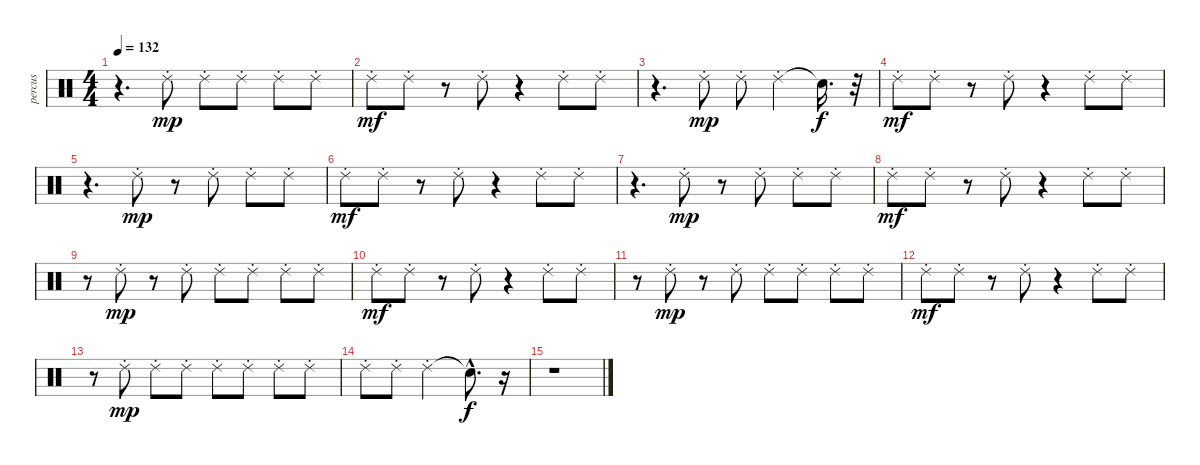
\track ("percus" "percus") {instrument percussion}
\staff {score}
\articulation defaults
\ts (4 4)
\tempo 132
\clef neutral
\ks c
r.4{d dy mf} "Ride (choke) 2".8{dy mp} "Ride (choke) 2".8 "Ride (choke) 2".8 "Ride (choke) 2".8 "Ride (choke) 2".8 |
"Ride (choke) 2".8{dy mf} "Ride (choke) 2".8 r.8 "Ride (choke) 2".8 r.4 "Ride (choke) 2".8 "Ride (choke) 2".8 |
r.4{d} "Ride (choke) 2".8{dy mp} "Ride (choke) 2".8 "Ride (choke) 2".4 "Snare (hit)"{t}.16{d dy f} r.32 |
"Ride (choke) 2".8{dy mf} "Ride (choke) 2".8 r.8 "Ride (choke) 2".8 r.4 "Ride (choke) 2".8 "Ride (choke) 2".8 |
r.4{d} "Ride (choke) 2".8{dy mp} r.8 "Ride (choke) 2".8 "Ride (choke) 2".8 "Ride (choke) 2".8 |
"Ride (choke) 2".8{dy mf} "Ride (choke) 2".8 r.8 "Ride (choke) 2".8 r.4 "Ride (choke) 2".8 "Ride (choke) 2".8 |
r.4{d} "Ride (choke) 2".8{dy mp} r.8 "Ride (choke) 2".8 "Ride (choke) 2".8 "Ride (choke) 2".8 |
"Ride (choke) 2".8{dy mf} "Ride (choke) 2".8 r.8 "Ride (choke) 2".8 r.4 "Ride (choke) 2".8 "Ride (choke) 2".8 |
r.8 "Ride (choke) 2".8{dy mp} r.8 "Ride (choke) 2".8 "Ride (choke) 2".8 "Ride (choke) 2".8 "Ride (choke) 2".8 "Ride (choke) 2".8 |
"Ride (choke) 2".8{dy mf} "Ride (choke) 2".8 r.8 "Ride (choke) 2".8 r.4 "Ride (choke) 2".8 "Ride (choke) 2".8 |
r.8 "Ride (choke) 2".8{dy mp} r.8 "Ride (choke) 2".8 "Ride (choke) 2".8 "Ride (choke) 2".8 "Ride (choke) 2".8 "Ride (choke) 2".8 |
"Ride (choke) 2".8{dy mf} "Ride (choke) 2".8 r.8 "Ride (choke) 2".8 r.4 "Ride (choke) 2".8 "Ride (choke) 2".8 |
r.8 "Ride (choke) 2".8{dy mp} "Ride (choke) 2".8 "Ride (choke) 2".8 "Ride (choke) 2".8 "Ride (choke) 2".8 "Ride (choke) 2".8 "Ride (choke) 2".8 |
"Ride (choke) 2".8 "Ride (choke) 2".8 "Ride (choke) 2".2 "Snare (hit)"{hac t}.8{d dy f} r.16 |
r.1
